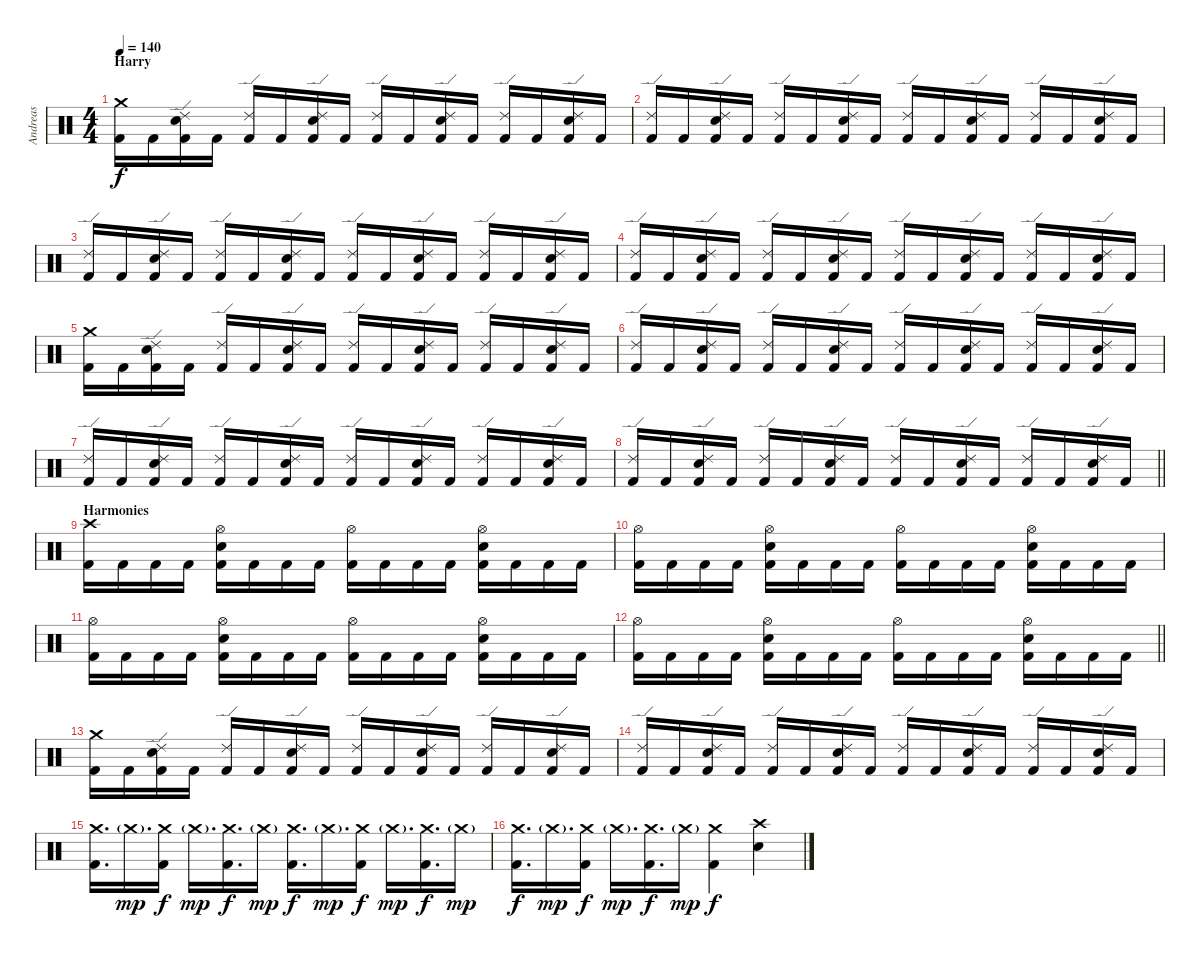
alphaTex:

\track ("Andreas" "Andreas") {instrument percussion}
\staff {score}
\articulation defaults
\ts (4 4)
\section ("" "Harry")
\tempo 140
\clef neutral
\ks c
("Crash medium (hit)" "Kick (hit) 2").16{dy f} "Kick (hit) 2".16 ("Ride (edge) 2" "Electric Snare (hit)" "Kick (hit) 2").16 "Kick (hit) 2".16 ("Ride (edge) 2" "Kick (hit) 2").16 "Kick (hit) 2".16 ("Ride (edge) 2" "Electric Snare (hit)" "Kick (hit) 2").16 "Kick (hit) 2".16 ("Ride (edge) 2" "Kick (hit) 2").16 "Kick (hit) 2".16 ("Ride (edge) 2" "Electric Snare (hit)" "Kick (hit) 2").16 "Kick (hit) 2".16 ("Ride (edge) 2" "Kick (hit) 2").16 "Kick (hit) 2".16 ("Ride (edge) 2" "Electric Snare (hit)" "Kick (hit) 2").16 "Kick (hit) 2".16 |
("Ride (edge) 2" "Kick (hit) 2").16 "Kick (hit) 2".16 ("Ride (edge) 2" "Electric Snare (hit)" "Kick (hit) 2").16 "Kick (hit) 2".16 ("Ride (edge) 2" "Kick (hit) 2").16 "Kick (hit) 2".16 ("Ride (edge) 2" "Electric Snare (hit)" "Kick (hit) 2").16 "Kick (hit) 2".16 ("Ride (edge) 2" "Kick (hit) 2").16 "Kick (hit) 2".16 ("Ride (edge) 2" "Electric Snare (hit)" "Kick (hit) 2").16 "Kick (hit) 2".16 ("Ride (edge) 2" "Kick (hit) 2").16 "Kick (hit) 2".16 ("Ride (edge) 2" "Electric Snare (hit)" "Kick (hit) 2").16 "Kick (hit) 2".16 |
("Ride (edge) 2" "Kick (hit) 2").16 "Kick (hit) 2".16 ("Ride (edge) 2" "Electric Snare (hit)" "Kick (hit) 2").16 "Kick (hit) 2".16 ("Ride (edge) 2" "Kick (hit) 2").16 "Kick (hit) 2".16 ("Ride (edge) 2" "Electric Snare (hit)" "Kick (hit) 2").16 "Kick (hit) 2".16 ("Ride (edge) 2" "Kick (hit) 2").16 "Kick (hit) 2".16 ("Ride (edge) 2" "Electric Snare (hit)" "Kick (hit) 2").16 "Kick (hit) 2".16 ("Ride (edge) 2" "Kick (hit) 2").16 "Kick (hit) 2".16 ("Ride (edge) 2" "Electric Snare (hit)" "Kick (hit) 2").16 "Kick (hit) 2".16 |
("Ride (edge) 2" "Kick (hit) 2").16 "Kick (hit) 2".16 ("Ride (edge) 2" "Electric Snare (hit)" "Kick (hit) 2").16 "Kick (hit) 2".16 ("Ride (edge) 2" "Kick (hit) 2").16 "Kick (hit) 2".16 ("Ride (edge) 2" "Electric Snare (hit)" "Kick (hit) 2").16 "Kick (hit) 2".16 ("Ride (edge) 2" "Kick (hit) 2").16 "Kick (hit) 2".16 ("Ride (edge) 2" "Electric Snare (hit)" "Kick (hit) 2").16 "Kick (hit) 2".16 ("Ride (edge) 2" "Kick (hit) 2").16 "Kick (hit) 2".16 ("Ride (edge) 2" "Electric Snare (hit)" "Kick (hit) 2").16 "Kick (hit) 2".16 |
("Crash medium (hit)" "Kick (hit) 2").16 "Kick (hit) 2".16 ("Ride (edge) 2" "Electric Snare (hit)" "Kick (hit) 2").16 "Kick (hit) 2".16 ("Ride (edge) 2" "Kick (hit) 2").16 "Kick (hit) 2".16 ("Ride (edge) 2" "Electric Snare (hit)" "Kick (hit) 2").16 "Kick (hit) 2".16 ("Ride (edge) 2" "Kick (hit) 2").16 "Kick (hit) 2".16 ("Ride (edge) 2" "Electric Snare (hit)" "Kick (hit) 2").16 "Kick (hit) 2".16 ("Ride (edge) 2" "Kick (hit) 2").16 "Kick (hit) 2".16 ("Ride (edge) 2" "Electric Snare (hit)" "Kick (hit) 2").16 "Kick (hit) 2".16 |
("Ride (edge) 2" "Kick (hit) 2").16 "Kick (hit) 2".16 ("Ride (edge) 2" "Electric Snare (hit)" "Kick (hit) 2").16 "Kick (hit) 2".16 ("Ride (edge) 2" "Kick (hit) 2").16 "Kick (hit) 2".16 ("Ride (edge) 2" "Electric Snare (hit)" "Kick (hit) 2").16 "Kick (hit) 2".16 ("Ride (edge) 2" "Kick (hit) 2").16 "Kick (hit) 2".16 ("Ride (edge) 2" "Electric Snare (hit)" "Kick (hit) 2").16 "Kick (hit) 2".16 ("Ride (edge) 2" "Kick (hit) 2").16 "Kick (hit) 2".16 ("Ride (edge) 2" "Electric Snare (hit)" "Kick (hit) 2").16 "Kick (hit) 2".16 |
("Ride (edge) 2" "Kick (hit) 2").16 "Kick (hit) 2".16 ("Ride (edge) 2" "Electric Snare (hit)" "Kick (hit) 2").16 "Kick (hit) 2".16 ("Ride (edge) 2" "Kick (hit) 2").16 "Kick (hit) 2".16 ("Ride (edge) 2" "Electric Snare (hit)" "Kick (hit) 2").16 "Kick (hit) 2".16 ("Ride (edge) 2" "Kick (hit) 2").16 "Kick (hit) 2".16 ("Ride (edge) 2" "Electric Snare (hit)" "Kick (hit) 2").16 "Kick (hit) 2".16 ("Ride (edge) 2" "Kick (hit) 2").16 "Kick (hit) 2".16 ("Ride (edge) 2" "Electric Snare (hit)" "Kick (hit) 2").16 "Kick (hit) 2".16 |
\barLineRight lightlight
("Ride (edge) 2" "Kick (hit) 2").16 "Kick (hit) 2".16 ("Ride (edge) 2" "Electric Snare (hit)" "Kick (hit) 2").16 "Kick (hit) 2".16 ("Ride (edge) 2" "Kick (hit) 2").16 "Kick (hit) 2".16 ("Ride (edge) 2" "Electric Snare (hit)" "Kick (hit) 2").16 "Kick (hit) 2".16 ("Ride (edge) 2" "Kick (hit) 2").16 "Kick (hit) 2".16 ("Ride (edge) 2" "Electric Snare (hit)" "Kick (hit) 2").16 "Kick (hit) 2".16 ("Ride (edge) 2" "Kick (hit) 2").16 "Kick (hit) 2".16 ("Ride (edge) 2" "Electric Snare (hit)" "Kick (hit) 2").16 "Kick (hit) 2".16 |
\section ("" "Harmonies")
("Crash high (hit)" "Kick (hit) 2").16 "Kick (hit) 2".16 "Kick (hit) 2".16 "Kick (hit) 2".16 ("Hi-Hat (open)" "Electric Snare (hit)" "Kick (hit) 2").16 "Kick (hit) 2".16 "Kick (hit) 2".16 "Kick (hit) 2".16 ("Hi-Hat (open)" "Kick (hit) 2").16 "Kick (hit) 2".16 "Kick (hit) 2".16 "Kick (hit) 2".16 ("Hi-Hat (open)" "Electric Snare (hit)" "Kick (hit) 2").16 "Kick (hit) 2".16 "Kick (hit) 2".16 "Kick (hit) 2".16 |
("Hi-Hat (open)" "Kick (hit) 2").16 "Kick (hit) 2".16 "Kick (hit) 2".16 "Kick (hit) 2".16 ("Hi-Hat (open)" "Electric Snare (hit)" "Kick (hit) 2").16 "Kick (hit) 2".16 "Kick (hit) 2".16 "Kick (hit) 2".16 ("Hi-Hat (open)" "Kick (hit) 2").16 "Kick (hit) 2".16 "Kick (hit) 2".16 "Kick (hit) 2".16 ("Hi-Hat (open)" "Electric Snare (hit)" "Kick (hit) 2").16 "Kick (hit) 2".16 "Kick (hit) 2".16 "Kick (hit) 2".16 |
("Hi-Hat (open)" "Kick (hit) 2").16 "Kick (hit) 2".16 "Kick (hit) 2".16 "Kick (hit) 2".16 ("Hi-Hat (open)" "Electric Snare (hit)" "Kick (hit) 2").16 "Kick (hit) 2".16 "Kick (hit) 2".16 "Kick (hit) 2".16 ("Hi-Hat (open)" "Kick (hit) 2").16 "Kick (hit) 2".16 "Kick (hit) 2".16 "Kick (hit) 2".16 ("Hi-Hat (open)" "Electric Snare (hit)" "Kick (hit) 2").16 "Kick (hit) 2".16 "Kick (hit) 2".16 "Kick (hit) 2".16 |
\barLineRight lightlight
("Hi-Hat (open)" "Kick (hit) 2").16 "Kick (hit) 2".16 "Kick (hit) 2".16 "Kick (hit) 2".16 ("Hi-Hat (open)" "Electric Snare (hit)" "Kick (hit) 2").16 "Kick (hit) 2".16 "Kick (hit) 2".16 "Kick (hit) 2".16 ("Hi-Hat (open)" "Kick (hit) 2").16 "Kick (hit) 2".16 "Kick (hit) 2".16 "Kick (hit) 2".16 ("Hi-Hat (open)" "Electric Snare (hit)" "Kick (hit) 2").16 "Kick (hit) 2".16 "Kick (hit) 2".16 "Kick (hit) 2".16 |
("Crash medium (hit)" "Kick (hit) 2").16 "Kick (hit) 2".16 ("Ride (edge) 2" "Electric Snare (hit)" "Kick (hit) 2").16 "Kick (hit) 2".16 ("Ride (edge) 2" "Kick (hit) 2").16 "Kick (hit) 2".16 ("Ride (edge) 2" "Electric Snare (hit)" "Kick (hit) 2").16 "Kick (hit) 2".16 ("Ride (edge) 2" "Kick (hit) 2").16 "Kick (hit) 2".16 ("Ride (edge) 2" "Electric Snare (hit)" "Kick (hit) 2").16 "Kick (hit) 2".16 ("Ride (edge) 2" "Kick (hit) 2").16 "Kick (hit) 2".16 ("Ride (edge) 2" "Electric Snare (hit)" "Kick (hit) 2").16 "Kick (hit) 2".16 |
("Ride (edge) 2" "Kick (hit) 2").16 "Kick (hit) 2".16 ("Ride (edge) 2" "Electric Snare (hit)" "Kick (hit) 2").16 "Kick (hit) 2".16 ("Ride (edge) 2" "Kick (hit) 2").16 "Kick (hit) 2".16 ("Ride (edge) 2" "Electric Snare (hit)" "Kick (hit) 2").16 "Kick (hit) 2".16 ("Ride (edge) 2" "Kick (hit) 2").16 "Kick (hit) 2".16 ("Ride (edge) 2" "Electric Snare (hit)" "Kick (hit) 2").16 "Kick (hit) 2".16 ("Ride (edge) 2" "Kick (hit) 2").16 "Kick (hit) 2".16 ("Ride (edge) 2" "Electric Snare (hit)" "Kick (hit) 2").16 "Kick (hit) 2".16 |
("Crash medium (hit)" "Kick (hit) 2").16{d} "Crash medium (hit)"{g}.16{d dy mp} ("Crash medium (hit)" "Kick (hit) 2").16{dy f} "Crash medium (hit)"{g}.16{d dy mp} ("Crash medium (hit)" "Kick (hit) 2").16{d dy f} "Crash medium (hit)"{g}.16{dy mp} ("Crash medium (hit)" "Kick (hit) 2").16{d dy f} "Crash medium (hit)"{g}.16{d dy mp} ("Crash medium (hit)" "Kick (hit) 2").16{dy f} "Crash medium (hit)"{g}.16{d dy mp} ("Crash medium (hit)" "Kick (hit) 2").16{d dy f} "Crash medium (hit)"{g}.16{dy mp} |
("Crash medium (hit)" "Kick (hit) 2").16{d dy f} "Crash medium (hit)"{g}.16{d dy mp} ("Crash medium (hit)" "Kick (hit) 2").16{dy f} "Crash medium (hit)"{g}.16{d dy mp} ("Crash medium (hit)" "Kick (hit) 2").16{d dy f} "Crash medium (hit)"{g}.16{dy mp} ("Crash medium (hit)" "Kick (hit) 2").4{dy f} ("Crash high (hit)" "Electric Snare (hit)").4
